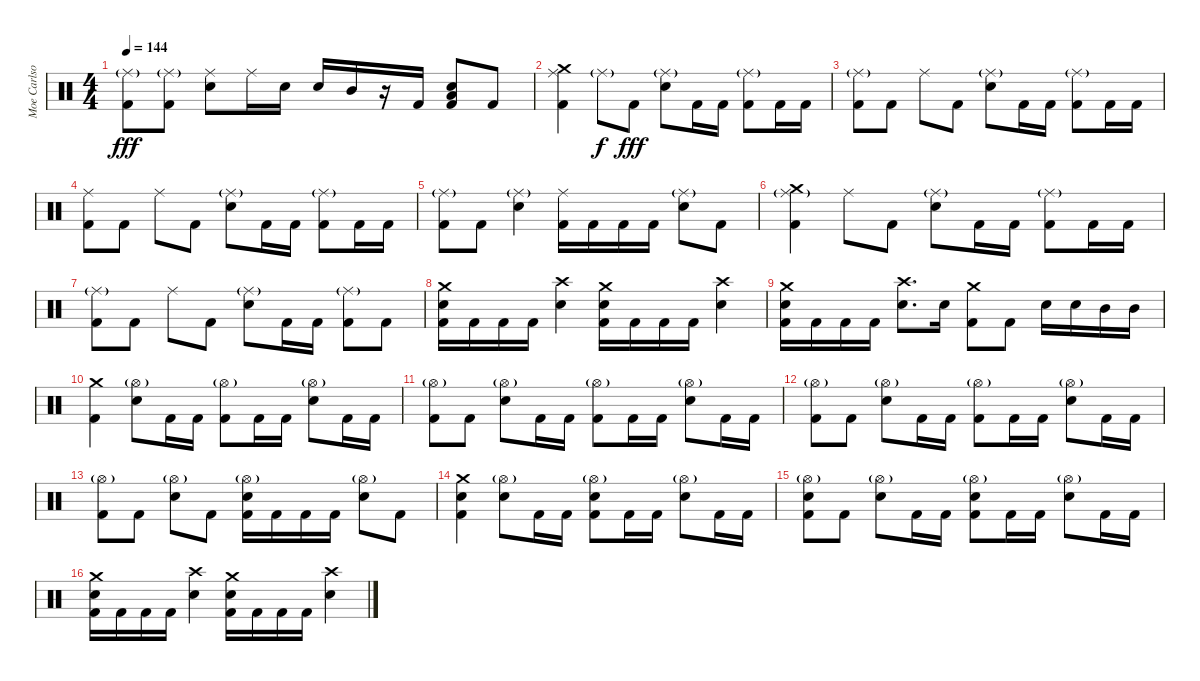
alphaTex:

\track ("Moe Carlson" "Moe Carlso") {solo instrument percussion}
\staff {score}
\articulation defaults
\ts (4 4)
\tempo 144
\clef neutral
\ks c
("Ride (middle)"{g} "Kick (hit) 2").8{dy fff} ("Ride (middle)"{g} "Kick (hit) 2").8 ("Ride (middle)" "Electric Snare (hit)").8 "Ride (middle)".16 "Electric Snare (hit)".16 "Electric Snare (hit)".16 "Mid Tom (hit)".16 r.16 "Kick (hit) 2".16 ("Electric Snare (hit)" "Low Floor Tom (hit)" "Kick (hit) 2").8 "Kick (hit) 2".8 |
("Crash medium (hit)" "Ride (middle)" "Kick (hit) 2").4 "Ride (middle)"{g}.8{dy f} "Kick (hit) 2".8{dy fff} ("Ride (middle)"{g} "Electric Snare (hit)").8 "Kick (hit) 2".16 "Kick (hit) 2".16 ("Ride (middle)"{g} "Kick (hit) 2").8 "Kick (hit) 2".16 "Kick (hit) 2".16 |
("Ride (middle)"{g} "Kick (hit) 2").8 "Kick (hit) 2".8 "Ride (middle)".8 "Kick (hit) 2".8 ("Ride (middle)"{g} "Electric Snare (hit)").8 "Kick (hit) 2".16 "Kick (hit) 2".16 ("Ride (middle)"{g} "Kick (hit) 2").8 "Kick (hit) 2".16 "Kick (hit) 2".16 |
("Ride (middle)" "Kick (hit) 2").8 "Kick (hit) 2".8 "Ride (middle)".8 "Kick (hit) 2".8 ("Ride (middle)"{g} "Electric Snare (hit)").8 "Kick (hit) 2".16 "Kick (hit) 2".16 ("Ride (middle)"{g} "Kick (hit) 2").8 "Kick (hit) 2".16 "Kick (hit) 2".16 |
("Ride (middle)"{g} "Kick (hit) 2").8 "Kick (hit) 2".8 ("Ride (middle)"{g} "Electric Snare (hit)").4 ("Ride (middle)" "Kick (hit) 2").16 "Kick (hit) 2".16 "Kick (hit) 2".16 "Kick (hit) 2".16 ("Ride (middle)"{g} "Electric Snare (hit)").8 "Kick (hit) 2".8 |
("Crash medium (hit)" "Ride (middle)"{g} "Kick (hit) 2").4 "Ride (middle)".8 "Kick (hit) 2".8 ("Ride (middle)"{g} "Electric Snare (hit)").8 "Kick (hit) 2".16 "Kick (hit) 2".16 ("Ride (middle)"{g} "Kick (hit) 2").8 "Kick (hit) 2".16 "Kick (hit) 2".16 |
("Ride (middle)"{g} "Kick (hit) 2").8 "Kick (hit) 2".8 "Ride (middle)".8 "Kick (hit) 2".8 ("Ride (middle)"{g} "Electric Snare (hit)").8 "Kick (hit) 2".16 "Kick (hit) 2".16 ("Ride (middle)"{g} "Kick (hit) 2").8 "Kick (hit) 2".8 |
("Crash medium (hit)" "Electric Snare (hit)" "Kick (hit) 2").16 "Kick (hit) 2".16 "Kick (hit) 2".16 "Kick (hit) 2".16 ("Crash high (hit)" "Electric Snare (hit)").4 ("Crash medium (hit)" "Electric Snare (hit)" "Kick (hit) 2").16 "Kick (hit) 2".16 "Kick (hit) 2".16 "Kick (hit) 2".16 ("Crash high (hit)" "Electric Snare (hit)").4 |
("Crash medium (hit)" "Electric Snare (hit)" "Kick (hit) 2").16 "Kick (hit) 2".16 "Kick (hit) 2".16 "Kick (hit) 2".16 ("Crash high (hit)" "Electric Snare (hit)").8{d} "Electric Snare (hit)".16 ("Crash medium (hit)" "Kick (hit) 2").8 "Kick (hit) 2".8 "Electric Snare (hit)".16 "Electric Snare (hit)".16 "Mid Tom (hit)".16 "Mid Tom (hit)".16 |
("Crash medium (hit)" "Kick (hit) 2").4 ("Hi-Hat (open)"{g} "Electric Snare (hit)").8 "Kick (hit) 2".16 "Kick (hit) 2".16 ("Hi-Hat (open)"{g} "Kick (hit) 2").8 "Kick (hit) 2".16 "Kick (hit) 2".16 ("Hi-Hat (open)"{g} "Electric Snare (hit)").8 "Kick (hit) 2".16 "Kick (hit) 2".16 |
("Hi-Hat (open)"{g} "Kick (hit) 2").8 "Kick (hit) 2".8 ("Hi-Hat (open)"{g} "Electric Snare (hit)").8 "Kick (hit) 2".16 "Kick (hit) 2".16 ("Hi-Hat (open)"{g} "Kick (hit) 2").8 "Kick (hit) 2".16 "Kick (hit) 2".16 ("Hi-Hat (open)"{g} "Electric Snare (hit)").8 "Kick (hit) 2".16 "Kick (hit) 2".16 |
("Hi-Hat (open)"{g} "Kick (hit) 2").8 "Kick (hit) 2".8 ("Hi-Hat (open)"{g} "Electric Snare (hit)").8 "Kick (hit) 2".16 "Kick (hit) 2".16 ("Hi-Hat (open)"{g} "Kick (hit) 2").8 "Kick (hit) 2".16 "Kick (hit) 2".16 ("Hi-Hat (open)"{g} "Electric Snare (hit)").8 "Kick (hit) 2".16 "Kick (hit) 2".16 |
("Hi-Hat (open)"{g} "Kick (hit) 2").8 "Kick (hit) 2".8 ("Hi-Hat (open)"{g} "Electric Snare (hit)").8 "Kick (hit) 2".8 ("Hi-Hat (open)"{g} "Electric Snare (hit)" "Kick (hit) 2").16 "Kick (hit) 2".16 "Kick (hit) 2".16 "Kick (hit) 2".16 ("Hi-Hat (open)"{g} "Electric Snare (hit)").8 "Kick (hit) 2".8 |
("Crash medium (hit)" "Electric Snare (hit)" "Kick (hit) 2").4 ("Hi-Hat (open)"{g} "Electric Snare (hit)").8 "Kick (hit) 2".16 "Kick (hit) 2".16 ("Hi-Hat (open)"{g} "Electric Snare (hit)" "Kick (hit) 2").8 "Kick (hit) 2".16 "Kick (hit) 2".16 ("Hi-Hat (open)"{g} "Electric Snare (hit)").8 "Kick (hit) 2".16 "Kick (hit) 2".16 |
("Hi-Hat (open)"{g} "Electric Snare (hit)" "Kick (hit) 2").8 "Kick (hit) 2".8 ("Hi-Hat (open)"{g} "Electric Snare (hit)").8 "Kick (hit) 2".16 "Kick (hit) 2".16 ("Hi-Hat (open)"{g} "Electric Snare (hit)" "Kick (hit) 2").8 "Kick (hit) 2".16 "Kick (hit) 2".16 ("Hi-Hat (open)"{g} "Electric Snare (hit)").8 "Kick (hit) 2".16 "Kick (hit) 2".16 |
("Crash medium (hit)" "Electric Snare (hit)" "Kick (hit) 2").16 "Kick (hit) 2".16 "Kick (hit) 2".16 "Kick (hit) 2".16 ("Crash high (hit)" "Electric Snare (hit)").4 ("Crash medium (hit)" "Electric Snare (hit)" "Kick (hit) 2").16 "Kick (hit) 2".16 "Kick (hit) 2".16 "Kick (hit) 2".16 ("Crash high (hit)" "Electric Snare (hit)").4
